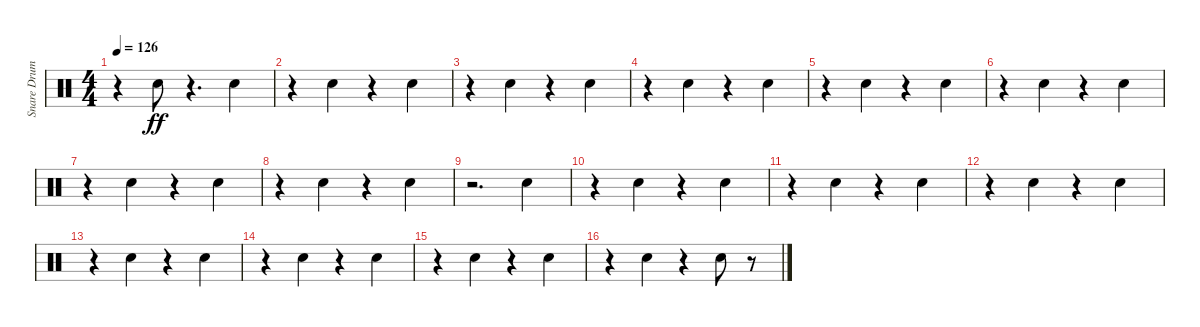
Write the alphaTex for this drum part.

\track ("Snare Drum" "Snare Drum") {instrument percussion}
\staff {score}
\articulation defaults
\ts (4 4)
\tempo 126
\clef neutral
\ks c
r.4{dy ff} "Electric Snare (hit)".8 r.4{d} "Electric Snare (hit)".4 |
r.4 "Electric Snare (hit)".4 r.4 "Electric Snare (hit)".4 |
r.4 "Electric Snare (hit)".4 r.4 "Electric Snare (hit)".4 |
r.4 "Electric Snare (hit)".4 r.4 "Electric Snare (hit)".4 |
r.4 "Electric Snare (hit)".4 r.4 "Electric Snare (hit)".4 |
r.4 "Electric Snare (hit)".4 r.4 "Electric Snare (hit)".4 |
r.4 "Electric Snare (hit)".4 r.4 "Electric Snare (hit)".4 |
r.4 "Electric Snare (hit)".4 r.4 "Electric Snare (hit)".4 |
r.2{d} "Electric Snare (hit)".4 |
r.4 "Electric Snare (hit)".4 r.4 "Electric Snare (hit)".4 |
r.4 "Electric Snare (hit)".4 r.4 "Electric Snare (hit)".4 |
r.4 "Electric Snare (hit)".4 r.4 "Electric Snare (hit)".4 |
r.4 "Electric Snare (hit)".4 r.4 "Electric Snare (hit)".4 |
r.4 "Electric Snare (hit)".4 r.4 "Electric Snare (hit)".4 |
r.4 "Electric Snare (hit)".4 r.4 "Electric Snare (hit)".4 |
r.4 "Electric Snare (hit)".4 r.4 "Electric Snare (hit)".8 r.8
